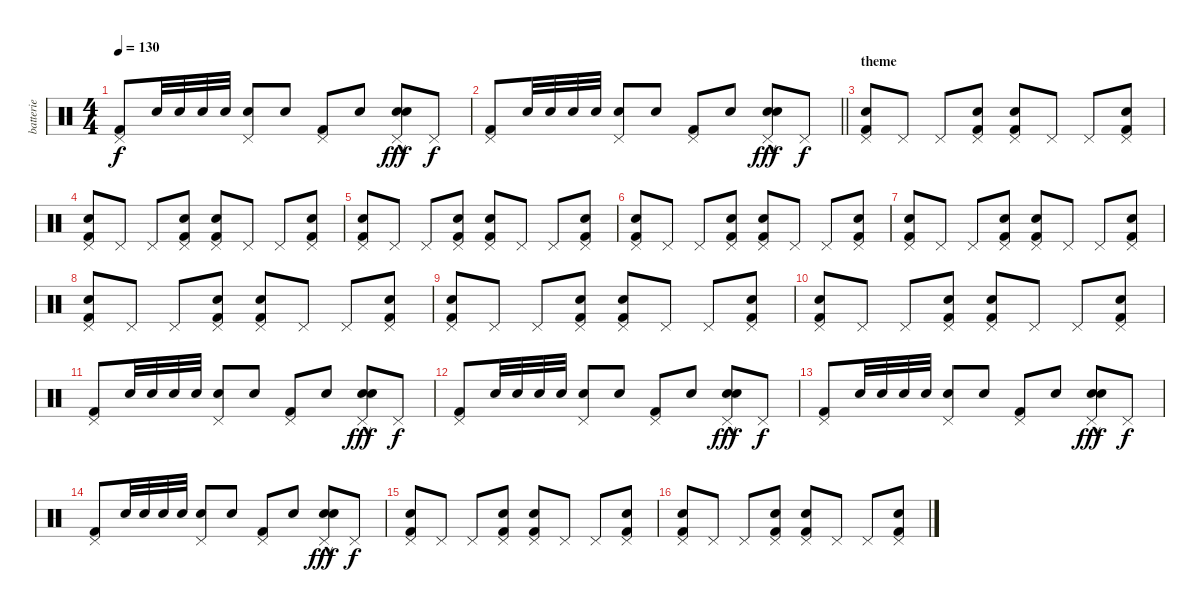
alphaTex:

\track ("batterie" "batterie") {instrument percussion}
\staff {score}
\articulation defaults
\ts (4 4)
\tempo 130
\clef neutral
\ks c
("Pedal Hi-Hat (hit)" "Kick (hit) 2").8{dy f} "Snare (hit) 2".32 "Snare (hit) 2".32 "Snare (hit) 2".32 "Snare (hit) 2".32 ("Pedal Hi-Hat (hit)" "Snare (hit) 2").8 "Snare (hit) 2".8 ("Pedal Hi-Hat (hit)" "Kick (hit) 2").8 "Snare (hit) 2".8 ("Pedal Hi-Hat (hit)" "Snare (hit) 2"{hac} "Snare (hit) 2"{hac}).8{dy fff} "Pedal Hi-Hat (hit)".8{dy f} |
\barLineRight lightlight
("Pedal Hi-Hat (hit)" "Kick (hit) 2").8 "Snare (hit) 2".32 "Snare (hit) 2".32 "Snare (hit) 2".32 "Snare (hit) 2".32 ("Pedal Hi-Hat (hit)" "Snare (hit) 2").8 "Snare (hit) 2".8 ("Pedal Hi-Hat (hit)" "Kick (hit) 2").8 "Snare (hit) 2".8 ("Pedal Hi-Hat (hit)" "Snare (hit) 2"{hac} "Snare (hit) 2"{hac}).8{dy fff} "Pedal Hi-Hat (hit)".8{dy f} |
\section ("" "theme")
("Pedal Hi-Hat (hit)" "Snare (hit) 2" "Kick (hit) 2").8 "Pedal Hi-Hat (hit)".8 "Pedal Hi-Hat (hit)".8 ("Pedal Hi-Hat (hit)" "Snare (hit) 2" "Kick (hit) 2").8 ("Pedal Hi-Hat (hit)" "Snare (hit) 2" "Kick (hit) 2").8 "Pedal Hi-Hat (hit)".8 "Pedal Hi-Hat (hit)".8 ("Pedal Hi-Hat (hit)" "Snare (hit) 2" "Kick (hit) 2").8 |
("Pedal Hi-Hat (hit)" "Snare (hit) 2" "Kick (hit) 2").8 "Pedal Hi-Hat (hit)".8 "Pedal Hi-Hat (hit)".8 ("Pedal Hi-Hat (hit)" "Snare (hit) 2" "Kick (hit) 2").8 ("Pedal Hi-Hat (hit)" "Snare (hit) 2" "Kick (hit) 2").8 "Pedal Hi-Hat (hit)".8 "Pedal Hi-Hat (hit)".8 ("Pedal Hi-Hat (hit)" "Snare (hit) 2" "Kick (hit) 2").8 |
("Pedal Hi-Hat (hit)" "Snare (hit) 2" "Kick (hit) 2").8 "Pedal Hi-Hat (hit)".8 "Pedal Hi-Hat (hit)".8 ("Pedal Hi-Hat (hit)" "Snare (hit) 2" "Kick (hit) 2").8 ("Pedal Hi-Hat (hit)" "Snare (hit) 2" "Kick (hit) 2").8 "Pedal Hi-Hat (hit)".8 "Pedal Hi-Hat (hit)".8 ("Pedal Hi-Hat (hit)" "Snare (hit) 2" "Kick (hit) 2").8 |
("Pedal Hi-Hat (hit)" "Snare (hit) 2" "Kick (hit) 2").8 "Pedal Hi-Hat (hit)".8 "Pedal Hi-Hat (hit)".8 ("Pedal Hi-Hat (hit)" "Snare (hit) 2" "Kick (hit) 2").8 ("Pedal Hi-Hat (hit)" "Snare (hit) 2" "Kick (hit) 2").8 "Pedal Hi-Hat (hit)".8 "Pedal Hi-Hat (hit)".8 ("Pedal Hi-Hat (hit)" "Snare (hit) 2" "Kick (hit) 2").8 |
("Pedal Hi-Hat (hit)" "Snare (hit) 2" "Kick (hit) 2").8 "Pedal Hi-Hat (hit)".8 "Pedal Hi-Hat (hit)".8 ("Pedal Hi-Hat (hit)" "Snare (hit) 2" "Kick (hit) 2").8 ("Pedal Hi-Hat (hit)" "Snare (hit) 2" "Kick (hit) 2").8 "Pedal Hi-Hat (hit)".8 "Pedal Hi-Hat (hit)".8 ("Pedal Hi-Hat (hit)" "Snare (hit) 2" "Kick (hit) 2").8 |
("Pedal Hi-Hat (hit)" "Snare (hit) 2" "Kick (hit) 2").8 "Pedal Hi-Hat (hit)".8 "Pedal Hi-Hat (hit)".8 ("Pedal Hi-Hat (hit)" "Snare (hit) 2" "Kick (hit) 2").8 ("Pedal Hi-Hat (hit)" "Snare (hit) 2" "Kick (hit) 2").8 "Pedal Hi-Hat (hit)".8 "Pedal Hi-Hat (hit)".8 ("Pedal Hi-Hat (hit)" "Snare (hit) 2" "Kick (hit) 2").8 |
("Pedal Hi-Hat (hit)" "Snare (hit) 2" "Kick (hit) 2").8 "Pedal Hi-Hat (hit)".8 "Pedal Hi-Hat (hit)".8 ("Pedal Hi-Hat (hit)" "Snare (hit) 2" "Kick (hit) 2").8 ("Pedal Hi-Hat (hit)" "Snare (hit) 2" "Kick (hit) 2").8 "Pedal Hi-Hat (hit)".8 "Pedal Hi-Hat (hit)".8 ("Pedal Hi-Hat (hit)" "Snare (hit) 2" "Kick (hit) 2").8 |
("Pedal Hi-Hat (hit)" "Snare (hit) 2" "Kick (hit) 2").8 "Pedal Hi-Hat (hit)".8 "Pedal Hi-Hat (hit)".8 ("Pedal Hi-Hat (hit)" "Snare (hit) 2" "Kick (hit) 2").8 ("Pedal Hi-Hat (hit)" "Snare (hit) 2" "Kick (hit) 2").8 "Pedal Hi-Hat (hit)".8 "Pedal Hi-Hat (hit)".8 ("Pedal Hi-Hat (hit)" "Snare (hit) 2" "Kick (hit) 2").8 |
("Pedal Hi-Hat (hit)" "Kick (hit) 2").8 "Snare (hit) 2".32 "Snare (hit) 2".32 "Snare (hit) 2".32 "Snare (hit) 2".32 ("Pedal Hi-Hat (hit)" "Snare (hit) 2").8 "Snare (hit) 2".8 ("Pedal Hi-Hat (hit)" "Kick (hit) 2").8 "Snare (hit) 2".8 ("Pedal Hi-Hat (hit)" "Snare (hit) 2"{hac} "Snare (hit) 2"{hac}).8{dy fff} "Pedal Hi-Hat (hit)".8{dy f} |
("Pedal Hi-Hat (hit)" "Kick (hit) 2").8 "Snare (hit) 2".32 "Snare (hit) 2".32 "Snare (hit) 2".32 "Snare (hit) 2".32 ("Pedal Hi-Hat (hit)" "Snare (hit) 2").8 "Snare (hit) 2".8 ("Pedal Hi-Hat (hit)" "Kick (hit) 2").8 "Snare (hit) 2".8 ("Pedal Hi-Hat (hit)" "Snare (hit) 2"{hac} "Snare (hit) 2"{hac}).8{dy fff} "Pedal Hi-Hat (hit)".8{dy f} |
("Pedal Hi-Hat (hit)" "Kick (hit) 2").8 "Snare (hit) 2".32 "Snare (hit) 2".32 "Snare (hit) 2".32 "Snare (hit) 2".32 ("Pedal Hi-Hat (hit)" "Snare (hit) 2").8 "Snare (hit) 2".8 ("Pedal Hi-Hat (hit)" "Kick (hit) 2").8 "Snare (hit) 2".8 ("Pedal Hi-Hat (hit)" "Snare (hit) 2"{hac} "Snare (hit) 2"{hac}).8{dy fff} "Pedal Hi-Hat (hit)".8{dy f} |
("Pedal Hi-Hat (hit)" "Kick (hit) 2").8 "Snare (hit) 2".32 "Snare (hit) 2".32 "Snare (hit) 2".32 "Snare (hit) 2".32 ("Pedal Hi-Hat (hit)" "Snare (hit) 2").8 "Snare (hit) 2".8 ("Pedal Hi-Hat (hit)" "Kick (hit) 2").8 "Snare (hit) 2".8 ("Pedal Hi-Hat (hit)" "Snare (hit) 2"{hac} "Snare (hit) 2"{hac}).8{dy fff} "Pedal Hi-Hat (hit)".8{dy f} |
("Pedal Hi-Hat (hit)" "Snare (hit) 2" "Kick (hit) 2").8 "Pedal Hi-Hat (hit)".8 "Pedal Hi-Hat (hit)".8 ("Pedal Hi-Hat (hit)" "Snare (hit) 2" "Kick (hit) 2").8 ("Pedal Hi-Hat (hit)" "Snare (hit) 2" "Kick (hit) 2").8 "Pedal Hi-Hat (hit)".8 "Pedal Hi-Hat (hit)".8 ("Pedal Hi-Hat (hit)" "Snare (hit) 2" "Kick (hit) 2").8 |
("Pedal Hi-Hat (hit)" "Snare (hit) 2" "Kick (hit) 2").8 "Pedal Hi-Hat (hit)".8 "Pedal Hi-Hat (hit)".8 ("Pedal Hi-Hat (hit)" "Snare (hit) 2" "Kick (hit) 2").8 ("Pedal Hi-Hat (hit)" "Snare (hit) 2" "Kick (hit) 2").8 "Pedal Hi-Hat (hit)".8 "Pedal Hi-Hat (hit)".8 ("Pedal Hi-Hat (hit)" "Snare (hit) 2" "Kick (hit) 2").8
